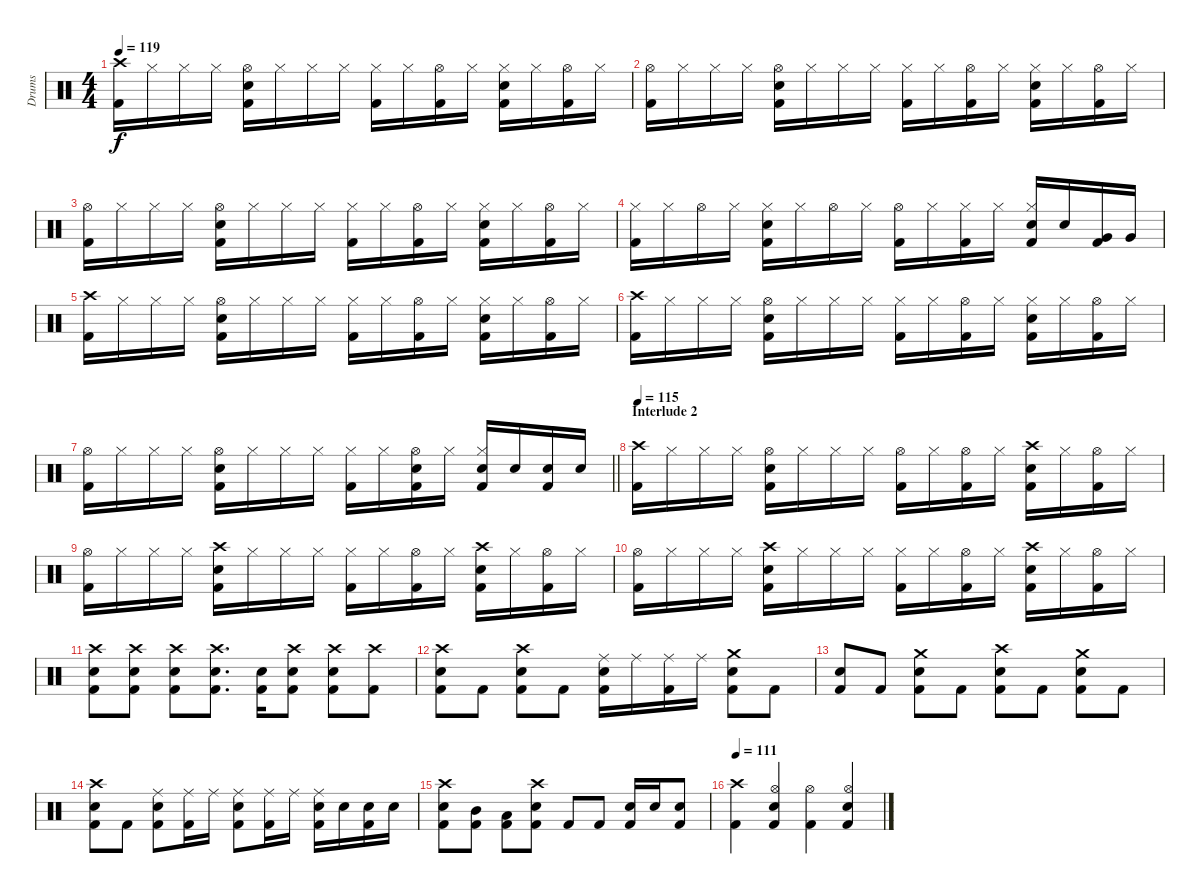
\track ("Drums" "Drums") {instrument percussion}
\staff {score}
\articulation defaults
\ts (4 4)
\tempo 119
\clef neutral
\ks c
("Crash high (hit)" "Kick (hit) 2").16{dy f} "Hi-Hat (closed)".16 "Hi-Hat (closed)".16 "Hi-Hat (closed)".16 ("Hi-Hat (open)" "Snare (hit) 2" "Kick (hit) 2").16 "Hi-Hat (closed)".16 "Hi-Hat (closed)".16 "Hi-Hat (closed)".16 ("Hi-Hat (closed)" "Kick (hit) 2").16 "Hi-Hat (closed)".16 ("Kick (hit) 2" "Hi-Hat (open)").16 "Hi-Hat (closed)".16 ("Hi-Hat (closed)" "Kick (hit) 2" "Snare (hit) 2").16 "Hi-Hat (closed)".16 ("Kick (hit) 2" "Hi-Hat (open)").16 "Hi-Hat (closed)".16 |
("Hi-Hat (open)" "Kick (hit) 2").16 "Hi-Hat (closed)".16 "Hi-Hat (closed)".16 "Hi-Hat (closed)".16 ("Hi-Hat (open)" "Snare (hit) 2" "Kick (hit) 2").16 "Hi-Hat (closed)".16 "Hi-Hat (closed)".16 "Hi-Hat (closed)".16 ("Hi-Hat (closed)" "Kick (hit) 2").16 "Hi-Hat (closed)".16 ("Kick (hit) 2" "Hi-Hat (open)").16 "Hi-Hat (closed)".16 ("Hi-Hat (closed)" "Kick (hit) 2" "Snare (hit) 2").16 "Hi-Hat (closed)".16 ("Kick (hit) 2" "Hi-Hat (open)").16 "Hi-Hat (closed)".16 |
("Hi-Hat (open)" "Kick (hit) 2").16 "Hi-Hat (closed)".16 "Hi-Hat (closed)".16 "Hi-Hat (closed)".16 ("Hi-Hat (open)" "Snare (hit) 2" "Kick (hit) 2").16 "Hi-Hat (closed)".16 "Hi-Hat (closed)".16 "Hi-Hat (closed)".16 ("Hi-Hat (closed)" "Kick (hit) 2").16 "Hi-Hat (closed)".16 ("Kick (hit) 2" "Hi-Hat (open)").16 "Hi-Hat (closed)".16 ("Hi-Hat (closed)" "Kick (hit) 2" "Snare (hit) 2").16 "Hi-Hat (closed)".16 ("Kick (hit) 2" "Hi-Hat (open)").16 "Hi-Hat (closed)".16 |
("Hi-Hat (closed)" "Kick (hit) 2").16 "Hi-Hat (closed)".16 "Hi-Hat (open)".16 "Hi-Hat (closed)".16 ("Hi-Hat (closed)" "Snare (hit) 2" "Kick (hit) 2").16 "Hi-Hat (closed)".16 "Hi-Hat (open)".16 "Hi-Hat (closed)".16 ("Hi-Hat (open)" "Kick (hit) 2").16 "Hi-Hat (closed)".16 ("Kick (hit) 2" "Hi-Hat (closed)").16 "Hi-Hat (closed)".16 ("Hi-Hat (closed)" "Kick (hit) 2" "Snare (hit) 2").16 "Snare (hit) 2".16 ("Kick (hit) 2" "Very Low Tom (hit)").16 "Very Low Tom (hit)".16 |
("Crash high (hit)" "Kick (hit) 2").16 "Hi-Hat (closed)".16 "Hi-Hat (closed)".16 "Hi-Hat (closed)".16 ("Hi-Hat (open)" "Snare (hit) 2" "Kick (hit) 2").16 "Hi-Hat (closed)".16 "Hi-Hat (closed)".16 "Hi-Hat (closed)".16 ("Hi-Hat (closed)" "Kick (hit) 2").16 "Hi-Hat (closed)".16 ("Kick (hit) 2" "Hi-Hat (open)").16 "Hi-Hat (closed)".16 ("Hi-Hat (closed)" "Kick (hit) 2" "Snare (hit) 2").16 "Hi-Hat (closed)".16 ("Kick (hit) 2" "Hi-Hat (open)").16 "Hi-Hat (closed)".16 |
("Crash high (hit)" "Kick (hit) 2").16 "Hi-Hat (closed)".16 "Hi-Hat (closed)".16 "Hi-Hat (closed)".16 ("Hi-Hat (open)" "Snare (hit) 2" "Kick (hit) 2").16 "Hi-Hat (closed)".16 "Hi-Hat (closed)".16 "Hi-Hat (closed)".16 ("Hi-Hat (closed)" "Kick (hit) 2").16 "Hi-Hat (closed)".16 ("Kick (hit) 2" "Hi-Hat (open)").16 "Hi-Hat (closed)".16 ("Hi-Hat (closed)" "Kick (hit) 2" "Snare (hit) 2").16 "Hi-Hat (closed)".16 ("Kick (hit) 2" "Hi-Hat (open)").16 "Hi-Hat (closed)".16 |
\barLineRight lightlight
("Hi-Hat (open)" "Kick (hit) 2").16 "Hi-Hat (closed)".16 "Hi-Hat (closed)".16 "Hi-Hat (closed)".16 ("Hi-Hat (open)" "Snare (hit) 2" "Kick (hit) 2").16 "Hi-Hat (closed)".16 "Hi-Hat (closed)".16 "Hi-Hat (closed)".16 ("Hi-Hat (closed)" "Kick (hit) 2").16 "Hi-Hat (closed)".16 ("Kick (hit) 2" "Hi-Hat (open)" "Snare (hit) 2").16 "Hi-Hat (closed)".16 ("Hi-Hat (closed)" "Kick (hit) 2" "Snare (hit) 2").16 "Snare (hit) 2".16 ("Kick (hit) 2" "Snare (hit) 2").16 "Snare (hit) 2".16 |
\section ("" "Interlude 2")
\tempo 115
("Crash high (hit)" "Kick (hit) 2").16 "Hi-Hat (closed)".16 "Hi-Hat (closed)".16 "Hi-Hat (closed)".16 ("Hi-Hat (open)" "Snare (hit) 2" "Kick (hit) 2").16 "Hi-Hat (closed)".16 "Hi-Hat (closed)".16 "Hi-Hat (closed)".16 ("Hi-Hat (open)" "Kick (hit) 2").16 "Hi-Hat (closed)".16 ("Kick (hit) 2" "Hi-Hat (open)").16 "Hi-Hat (closed)".16 ("Crash high (hit)" "Kick (hit) 2" "Snare (hit) 2").16 "Hi-Hat (closed)".16 ("Kick (hit) 2" "Hi-Hat (open)").16 "Hi-Hat (closed)".16 |
("Hi-Hat (open)" "Kick (hit) 2").16 "Hi-Hat (closed)".16 "Hi-Hat (closed)".16 "Hi-Hat (closed)".16 ("Crash high (hit)" "Snare (hit) 2" "Kick (hit) 2").16 "Hi-Hat (closed)".16 "Hi-Hat (closed)".16 "Hi-Hat (closed)".16 ("Hi-Hat (closed)" "Kick (hit) 2").16 "Hi-Hat (closed)".16 ("Kick (hit) 2" "Hi-Hat (open)").16 "Hi-Hat (closed)".16 ("Crash high (hit)" "Kick (hit) 2" "Snare (hit) 2").16 "Hi-Hat (closed)".16 ("Kick (hit) 2" "Hi-Hat (open)").16 "Hi-Hat (closed)".16 |
("Hi-Hat (open)" "Kick (hit) 2").16 "Hi-Hat (closed)".16 "Hi-Hat (closed)".16 "Hi-Hat (closed)".16 ("Crash high (hit)" "Snare (hit) 2" "Kick (hit) 2").16 "Hi-Hat (closed)".16 "Hi-Hat (closed)".16 "Hi-Hat (closed)".16 ("Hi-Hat (closed)" "Kick (hit) 2").16 "Hi-Hat (closed)".16 ("Kick (hit) 2" "Hi-Hat (open)").16 "Hi-Hat (closed)".16 ("Crash high (hit)" "Kick (hit) 2" "Snare (hit) 2").16 "Hi-Hat (closed)".16 ("Kick (hit) 2" "Hi-Hat (open)").16 "Hi-Hat (closed)".16 |
("Crash high (hit)" "Snare (hit) 2" "Kick (hit) 2").8 ("Crash high (hit)" "Snare (hit) 2" "Kick (hit) 2").8 ("Crash high (hit)" "Snare (hit) 2" "Kick (hit) 2").8 ("Snare (hit) 2" "Kick (hit) 2" "Crash high (hit)").8{d} ("Snare (hit) 2" "Kick (hit) 2").16 ("Crash high (hit)" "Snare (hit) 2" "Kick (hit) 2").8 ("Crash high (hit)" "Snare (hit) 2" "Kick (hit) 2").8 ("Crash high (hit)" "Kick (hit) 2").8 |
("Snare (hit) 2" "Crash high (hit)" "Kick (hit) 2").8 "Kick (hit) 2".8 ("Snare (hit) 2" "Crash high (hit)" "Kick (hit) 2").8 "Kick (hit) 2".8 ("Snare (hit) 2" "Ride (middle)" "Kick (hit) 2").16 "Ride (middle)".16 ("Ride (middle)" "Kick (hit) 2").16 "Ride (middle)".16 ("Snare (hit) 2" "Crash medium (hit)" "Kick (hit) 2").8 "Kick (hit) 2".8 |
("Snare (hit) 2" "Kick (hit) 2").8 "Kick (hit) 2".8 ("Snare (hit) 2" "Crash medium (hit)" "Kick (hit) 2").8 "Kick (hit) 2".8 ("Snare (hit) 2" "Kick (hit) 2" "Crash high (hit)").8 "Kick (hit) 2".8 ("Snare (hit) 2" "Crash medium (hit)" "Kick (hit) 2").8 "Kick (hit) 2".8 |
("Snare (hit) 2" "Kick (hit) 2" "Crash high (hit)").8 "Kick (hit) 2".8 ("Snare (hit) 2" "Ride (middle)" "Kick (hit) 2").8 ("Ride (middle)" "Kick (hit) 2").16 "Ride (middle)".16 ("Snare (hit) 2" "Kick (hit) 2" "Ride (middle)").8 ("Kick (hit) 2" "Ride (middle)").16 "Ride (middle)".16 ("Snare (hit) 2" "Ride (middle)" "Kick (hit) 2").16 "Snare (hit) 2".16 ("Snare (hit) 2" "Kick (hit) 2").16 "Snare (hit) 2".16 |
("Snare (hit) 2" "Crash high (hit)" "Kick (hit) 2").8 ("Mid Tom (hit)" "Kick (hit) 2").8 ("Kick (hit) 2" "Low Tom (hit)").8 ("Snare (hit) 2" "Crash high (hit)" "Kick (hit) 2").8 "Kick (hit) 2".8 "Kick (hit) 2".8 ("Snare (hit) 2" "Kick (hit) 2").16 "Snare (hit) 2".16 ("Snare (hit) 2" "Kick (hit) 2").8 |
\tempo 111
("Kick (hit) 2" "Crash high (hit)").4 ("Snare (hit) 2" "Hi-Hat (open)" "Kick (hit) 2").4 ("Kick (hit) 2" "Hi-Hat (open)").4 ("Snare (hit) 2" "Kick (hit) 2" "Hi-Hat (open)").4
